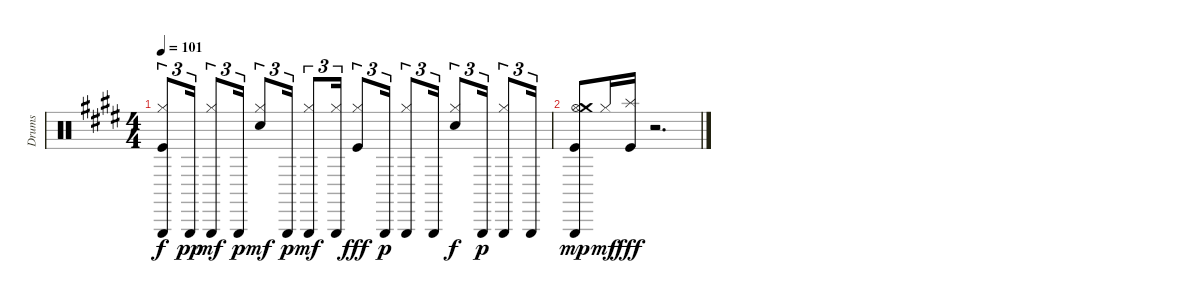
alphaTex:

\track ("Drums" "Drums") {instrument percussion}
\staff {score}
\articulation defaults
\ts (4 4)
\tempo 101
\clef neutral
\ks e
("Triangle (hit)" "Kick (hit)" "Hi-Hat (closed)").8{tu (3 2) dy f} "Triangle (hit)".16{tu (3 2) dy pp} ("Triangle (hit)" "Hi-Hat (closed)").8{tu (3 2) dy mf} "Triangle (hit)".16{tu (3 2) dy p} ("Electric Snare (hit)" "Hi-Hat (closed)").8{tu (3 2) dy mf} "Triangle (hit)".16{tu (3 2) dy p} ("Triangle (hit)" "Hi-Hat (closed)").8{tu (3 2) dy mf} ("Triangle (hit)" "Hi-Hat (closed)").16{tu (3 2)} ("Kick (hit)" "Hi-Hat (closed)").8{tu (3 2) dy fff} "Triangle (hit)".16{tu (3 2) dy p} ("Triangle (hit)" "Hi-Hat (closed)").8{tu (3 2)} "Triangle (hit)".16{tu (3 2)} ("Electric Snare (hit)" "Hi-Hat (closed)").8{tu (3 2) dy f} "Triangle (hit)".16{tu (3 2) dy p} ("Triangle (hit)" "Hi-Hat (closed)").8{tu (3 2)} "Triangle (hit)".16{tu (3 2)} |
("Hi-Hat (open)" "Triangle (hit)" "Kick (hit)" "Crash medium (hit)").8{dy mp} "Hi-Hat (closed)".16{dy mf} ("Splash (hit)" "Kick (hit)").16{dy fff} r.2{d}
